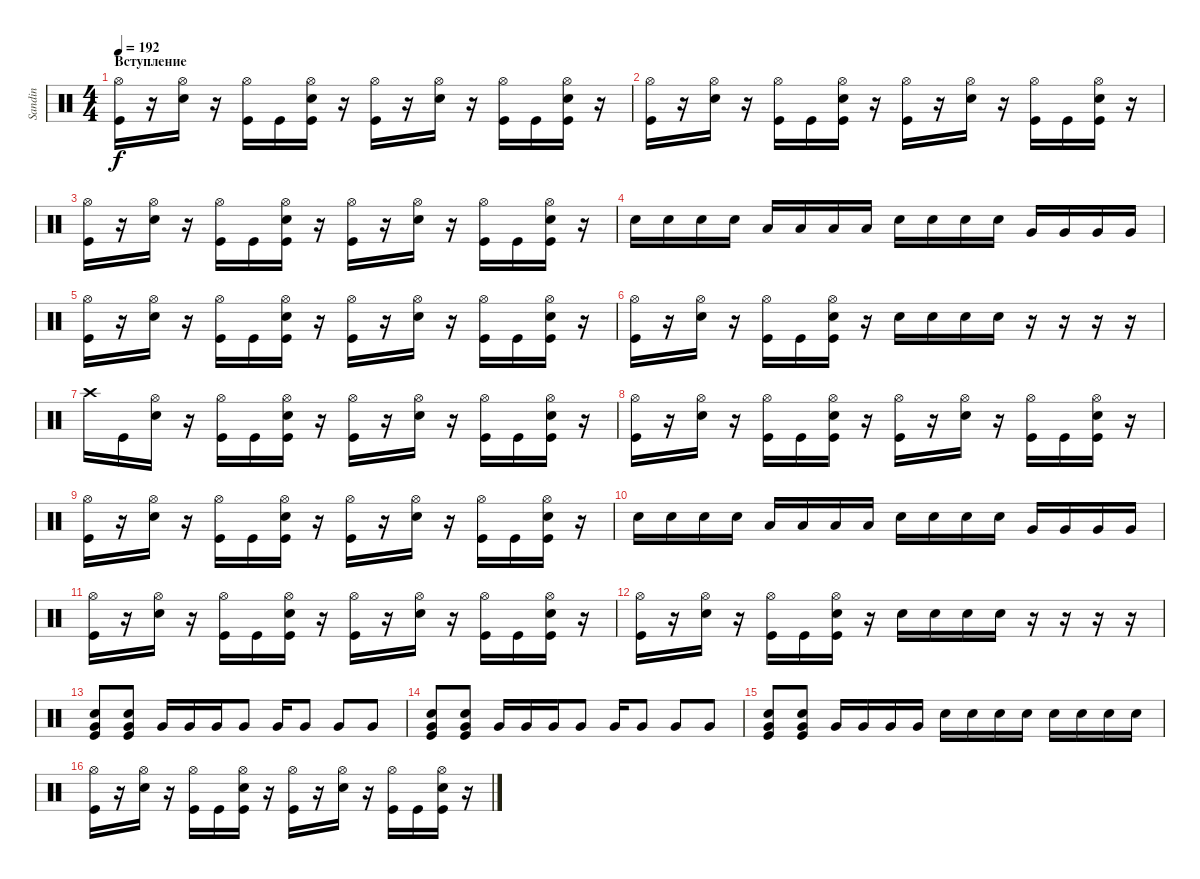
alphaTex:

\track ("Sandin" "Sandin") {instrument percussion}
\staff {score}
\articulation defaults
\ts (4 4)
\section ("" "Вступление")
\tempo 192
\clef neutral
\ks c
("Hi-Hat (open)" "Kick (hit)").16{dy f} r.16 ("Hi-Hat (open)" "Electric Snare (hit)").16 r.16 ("Hi-Hat (open)" "Kick (hit)").16 "Kick (hit)".16 ("Hi-Hat (open)" "Electric Snare (hit)" "Kick (hit)").16 r.16 ("Hi-Hat (open)" "Kick (hit)").16 r.16 ("Hi-Hat (open)" "Electric Snare (hit)").16 r.16 ("Hi-Hat (open)" "Kick (hit)").16 "Kick (hit)".16 ("Hi-Hat (open)" "Electric Snare (hit)" "Kick (hit)").16 r.16 |
("Hi-Hat (open)" "Kick (hit)").16 r.16 ("Hi-Hat (open)" "Electric Snare (hit)").16 r.16 ("Hi-Hat (open)" "Kick (hit)").16 "Kick (hit)".16 ("Hi-Hat (open)" "Electric Snare (hit)" "Kick (hit)").16 r.16 ("Hi-Hat (open)" "Kick (hit)").16 r.16 ("Hi-Hat (open)" "Electric Snare (hit)").16 r.16 ("Hi-Hat (open)" "Kick (hit)").16 "Kick (hit)".16 ("Hi-Hat (open)" "Electric Snare (hit)" "Kick (hit)").16 r.16 |
("Hi-Hat (open)" "Kick (hit)").16 r.16 ("Hi-Hat (open)" "Electric Snare (hit)").16 r.16 ("Hi-Hat (open)" "Kick (hit)").16 "Kick (hit)".16 ("Hi-Hat (open)" "Electric Snare (hit)" "Kick (hit)").16 r.16 ("Hi-Hat (open)" "Kick (hit)").16 r.16 ("Hi-Hat (open)" "Electric Snare (hit)").16 r.16 ("Hi-Hat (open)" "Kick (hit)").16 "Kick (hit)".16 ("Hi-Hat (open)" "Electric Snare (hit)" "Kick (hit)").16 r.16 |
"Electric Snare (hit)".16 "Electric Snare (hit)".16 "Electric Snare (hit)".16 "Electric Snare (hit)".16 "Low Tom (hit)".16 "Low Tom (hit)".16 "Low Tom (hit)".16 "Low Tom (hit)".16 "Electric Snare (hit)".16 "Electric Snare (hit)".16 "Electric Snare (hit)".16 "Electric Snare (hit)".16 "Very Low Tom (hit)".16 "Very Low Tom (hit)".16 "Very Low Tom (hit)".16 "Very Low Tom (hit)".16 |
("Hi-Hat (open)" "Kick (hit)").16 r.16 ("Hi-Hat (open)" "Electric Snare (hit)").16 r.16 ("Hi-Hat (open)" "Kick (hit)").16 "Kick (hit)".16 ("Hi-Hat (open)" "Electric Snare (hit)" "Kick (hit)").16 r.16 ("Hi-Hat (open)" "Kick (hit)").16 r.16 ("Hi-Hat (open)" "Electric Snare (hit)").16 r.16 ("Hi-Hat (open)" "Kick (hit)").16 "Kick (hit)".16 ("Hi-Hat (open)" "Electric Snare (hit)" "Kick (hit)").16 r.16 |
("Hi-Hat (open)" "Kick (hit)").16 r.16 ("Hi-Hat (open)" "Electric Snare (hit)").16 r.16 ("Hi-Hat (open)" "Kick (hit)").16 "Kick (hit)".16 ("Hi-Hat (open)" "Electric Snare (hit)" "Kick (hit)").16 r.16 "Electric Snare (hit)".16 "Electric Snare (hit)".16 "Electric Snare (hit)".16 "Electric Snare (hit)".16 r.16 r.16 r.16 r.16 |
"Crash high (hit)".16 "Kick (hit)".16 ("Hi-Hat (open)" "Electric Snare (hit)").16 r.16 ("Hi-Hat (open)" "Kick (hit)").16 "Kick (hit)".16 ("Hi-Hat (open)" "Electric Snare (hit)" "Kick (hit)").16 r.16 ("Hi-Hat (open)" "Kick (hit)").16 r.16 ("Hi-Hat (open)" "Electric Snare (hit)").16 r.16 ("Hi-Hat (open)" "Kick (hit)").16 "Kick (hit)".16 ("Hi-Hat (open)" "Electric Snare (hit)" "Kick (hit)").16 r.16 |
("Hi-Hat (open)" "Kick (hit)").16 r.16 ("Hi-Hat (open)" "Electric Snare (hit)").16 r.16 ("Hi-Hat (open)" "Kick (hit)").16 "Kick (hit)".16 ("Hi-Hat (open)" "Electric Snare (hit)" "Kick (hit)").16 r.16 ("Hi-Hat (open)" "Kick (hit)").16 r.16 ("Hi-Hat (open)" "Electric Snare (hit)").16 r.16 ("Hi-Hat (open)" "Kick (hit)").16 "Kick (hit)".16 ("Hi-Hat (open)" "Electric Snare (hit)" "Kick (hit)").16 r.16 |
("Hi-Hat (open)" "Kick (hit)").16 r.16 ("Hi-Hat (open)" "Electric Snare (hit)").16 r.16 ("Hi-Hat (open)" "Kick (hit)").16 "Kick (hit)".16 ("Hi-Hat (open)" "Electric Snare (hit)" "Kick (hit)").16 r.16 ("Hi-Hat (open)" "Kick (hit)").16 r.16 ("Hi-Hat (open)" "Electric Snare (hit)").16 r.16 ("Hi-Hat (open)" "Kick (hit)").16 "Kick (hit)".16 ("Hi-Hat (open)" "Electric Snare (hit)" "Kick (hit)").16 r.16 |
"Electric Snare (hit)".16 "Electric Snare (hit)".16 "Electric Snare (hit)".16 "Electric Snare (hit)".16 "Low Tom (hit)".16 "Low Tom (hit)".16 "Low Tom (hit)".16 "Low Tom (hit)".16 "Electric Snare (hit)".16 "Electric Snare (hit)".16 "Electric Snare (hit)".16 "Electric Snare (hit)".16 "Very Low Tom (hit)".16 "Very Low Tom (hit)".16 "Very Low Tom (hit)".16 "Very Low Tom (hit)".16 |
("Hi-Hat (open)" "Kick (hit)").16 r.16 ("Hi-Hat (open)" "Electric Snare (hit)").16 r.16 ("Hi-Hat (open)" "Kick (hit)").16 "Kick (hit)".16 ("Hi-Hat (open)" "Electric Snare (hit)" "Kick (hit)").16 r.16 ("Hi-Hat (open)" "Kick (hit)").16 r.16 ("Hi-Hat (open)" "Electric Snare (hit)").16 r.16 ("Hi-Hat (open)" "Kick (hit)").16 "Kick (hit)".16 ("Hi-Hat (open)" "Electric Snare (hit)" "Kick (hit)").16 r.16 |
("Hi-Hat (open)" "Kick (hit)").16 r.16 ("Hi-Hat (open)" "Electric Snare (hit)").16 r.16 ("Hi-Hat (open)" "Kick (hit)").16 "Kick (hit)".16 ("Hi-Hat (open)" "Electric Snare (hit)" "Kick (hit)").16 r.16 "Electric Snare (hit)".16 "Electric Snare (hit)".16 "Electric Snare (hit)".16 "Electric Snare (hit)".16 r.16 r.16 r.16 r.16 |
("Electric Snare (hit)" "Very Low Tom (hit)" "Kick (hit)").8 ("Electric Snare (hit)" "Very Low Tom (hit)" "Kick (hit)").8 "Very Low Tom (hit)".16 "Very Low Tom (hit)".16 "Very Low Tom (hit)".16 "Very Low Tom (hit)".8 "Very Low Tom (hit)".16 "Very Low Tom (hit)".8 "Very Low Tom (hit)".8 "Very Low Tom (hit)".8 |
("Electric Snare (hit)" "Very Low Tom (hit)" "Kick (hit)").8 ("Electric Snare (hit)" "Very Low Tom (hit)" "Kick (hit)").8 "Very Low Tom (hit)".16 "Very Low Tom (hit)".16 "Very Low Tom (hit)".16 "Very Low Tom (hit)".8 "Very Low Tom (hit)".16 "Very Low Tom (hit)".8 "Very Low Tom (hit)".8 "Very Low Tom (hit)".8 |
("Electric Snare (hit)" "Very Low Tom (hit)" "Kick (hit)").8 ("Electric Snare (hit)" "Very Low Tom (hit)" "Kick (hit)").8 "Very Low Tom (hit)".16 "Very Low Tom (hit)".16 "Very Low Tom (hit)".16 "Very Low Tom (hit)".16 "Electric Snare (hit)".16 "Electric Snare (hit)".16 "Electric Snare (hit)".16 "Electric Snare (hit)".16 "Electric Snare (hit)".16 "Electric Snare (hit)".16 "Electric Snare (hit)".16 "Electric Snare (hit)".16 |
("Hi-Hat (open)" "Kick (hit)").16 r.16 ("Hi-Hat (open)" "Electric Snare (hit)").16 r.16 ("Hi-Hat (open)" "Kick (hit)").16 "Kick (hit)".16 ("Hi-Hat (open)" "Electric Snare (hit)" "Kick (hit)").16 r.16 ("Hi-Hat (open)" "Kick (hit)").16 r.16 ("Hi-Hat (open)" "Electric Snare (hit)").16 r.16 ("Hi-Hat (open)" "Kick (hit)").16 "Kick (hit)".16 ("Hi-Hat (open)" "Electric Snare (hit)" "Kick (hit)").16 r.16
